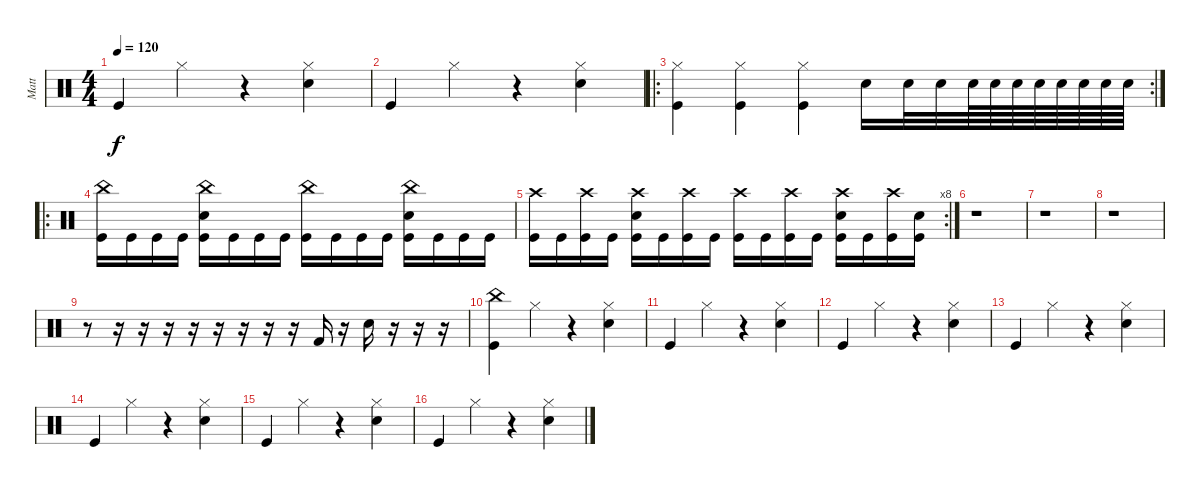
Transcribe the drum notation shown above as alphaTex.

\track ("Matt" "Matt") {instrument percussion}
\staff {score}
\articulation defaults
\ts (4 4)
\tempo 120
\clef neutral
\ks c "Kick (hit)".4{dy f} "Hi-Hat (closed)".4
r.4 ("Hi-Hat (closed)" "Electric Snare (hit)").4 |
"Kick (hit)".4 "Hi-Hat (closed)".4 r.4 ("Hi-Hat (closed)" "Electric Snare (hit)").4 |
\ro
\rc 2
("Hi-Hat (closed)" "Kick (hit)").4 ("Hi-Hat (closed)" "Kick (hit)").4 ("Hi-Hat (closed)" "Kick (hit)").4 "Electric Snare (hit)".16 "Electric Snare (hit)".32 "Electric Snare (hit)".32 "Electric Snare (hit)".64 "Electric Snare (hit)".64 "Electric Snare (hit)".64 "Electric Snare (hit)".64 "Electric Snare (hit)".64 "Electric Snare (hit)".64 "Electric Snare (hit)".64 "Electric Snare (hit)".64 |
\ro
("China (hit)" "Kick (hit)").16 "Kick (hit)".16 "Kick (hit)".16 "Kick (hit)".16 ("China (hit)" "Electric Snare (hit)" "Kick (hit)").16 "Kick (hit)".16 "Kick (hit)".16 "Kick (hit)".16 ("China (hit)" "Kick (hit)").16 "Kick (hit)".16 "Kick (hit)".16 "Kick (hit)".16 ("China (hit)" "Electric Snare (hit)" "Kick (hit)").16 "Kick (hit)".16 "Kick (hit)".16 "Kick (hit)".16 |
\rc 8
("Crash high (hit)" "Kick (hit)").16 "Kick (hit)".16 ("Crash high (hit)" "Kick (hit)").16 "Kick (hit)".16 ("Crash high (hit)" "Electric Snare (hit)" "Kick (hit)").16 "Kick (hit)".16 ("Crash high (hit)" "Kick (hit)").16 "Kick (hit)".16 ("Crash high (hit)" "Kick (hit)").16 "Kick (hit)".16 ("Crash high (hit)" "Kick (hit)").16 "Kick (hit)".16 ("Crash high (hit)" "Electric Snare (hit)" "Kick (hit)").16 "Kick (hit)".16 ("Crash high (hit)" "Kick (hit)").16 ("Electric Snare (hit)" "Kick (hit)").16 |
r.1 |
r.1 |
r.1 |
r.8 r.16 r.16 r.16 r.16 r.16 r.16 r.16 r.16 "Kick (hit) 2".16 r.16 "Electric Snare (hit)".16 r.16 r.16 r.16 |
("China (hit)" "Kick (hit)").4 "Hi-Hat (closed)".4 r.4 ("Hi-Hat (closed)" "Electric Snare (hit)").4 |
"Kick (hit)".4 "Hi-Hat (closed)".4 r.4 ("Hi-Hat (closed)" "Electric Snare (hit)").4 |
"Kick (hit)".4 "Hi-Hat (closed)".4 r.4 ("Hi-Hat (closed)" "Electric Snare (hit)").4 |
"Kick (hit)".4 "Hi-Hat (closed)".4 r.4 ("Hi-Hat (closed)" "Electric Snare (hit)").4 |
"Kick (hit)".4 "Hi-Hat (closed)".4 r.4 ("Hi-Hat (closed)" "Electric Snare (hit)").4 |
"Kick (hit)".4 "Hi-Hat (closed)".4 r.4 ("Hi-Hat (closed)" "Electric Snare (hit)").4 |
"Kick (hit)".4 "Hi-Hat (closed)".4 r.4 ("Hi-Hat (closed)" "Electric Snare (hit)").4
